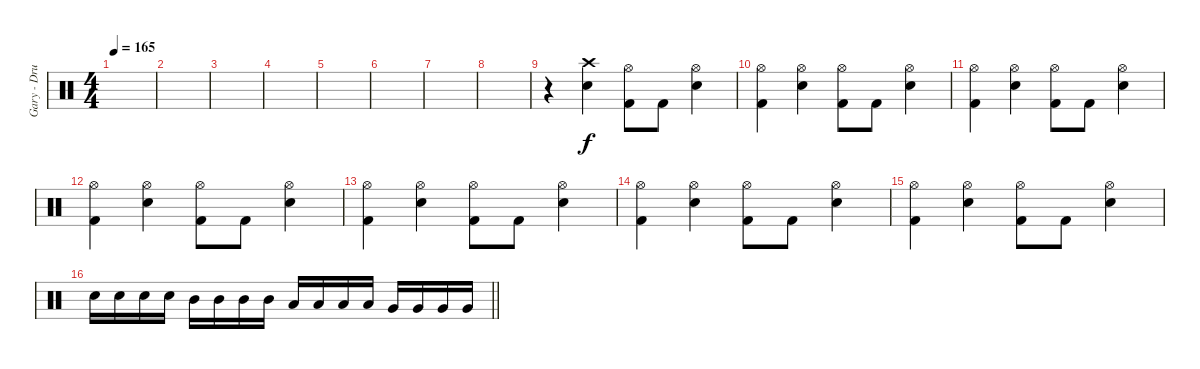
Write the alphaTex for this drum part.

\track ("Gary - Drums" "Gary - Dru") {instrument percussion}
\staff {score}
\articulation defaults
\ts (4 4)
\tempo 165
\clef neutral
\ks c
|
|
|
|
|
|
|
|
r.4 ("Crash high (hit)" "Snare (hit) 2").4 ("Hi-Hat (open)" "Kick (hit) 2").8 "Kick (hit) 2".8 ("Hi-Hat (open)" "Snare (hit) 2").4 |
("Hi-Hat (open)" "Kick (hit) 2").4 ("Hi-Hat (open)" "Snare (hit) 2").4 ("Hi-Hat (open)" "Kick (hit) 2").8 "Kick (hit) 2".8 ("Hi-Hat (open)" "Snare (hit) 2").4 |
("Hi-Hat (open)" "Kick (hit) 2").4 ("Hi-Hat (open)" "Snare (hit) 2").4 ("Hi-Hat (open)" "Kick (hit) 2").8 "Kick (hit) 2".8 ("Hi-Hat (open)" "Snare (hit) 2").4 |
("Hi-Hat (open)" "Kick (hit) 2").4 ("Hi-Hat (open)" "Snare (hit) 2").4 ("Hi-Hat (open)" "Kick (hit) 2").8 "Kick (hit) 2".8 ("Hi-Hat (open)" "Snare (hit) 2").4 |
("Hi-Hat (open)" "Kick (hit) 2").4 ("Hi-Hat (open)" "Snare (hit) 2").4 ("Hi-Hat (open)" "Kick (hit) 2").8 "Kick (hit) 2".8 ("Hi-Hat (open)" "Snare (hit) 2").4 |
("Hi-Hat (open)" "Kick (hit) 2").4 ("Hi-Hat (open)" "Snare (hit) 2").4 ("Hi-Hat (open)" "Kick (hit) 2").8 "Kick (hit) 2".8 ("Hi-Hat (open)" "Snare (hit) 2").4 |
("Hi-Hat (open)" "Kick (hit) 2").4 ("Hi-Hat (open)" "Snare (hit) 2").4 ("Hi-Hat (open)" "Kick (hit) 2").8 "Kick (hit) 2".8 ("Hi-Hat (open)" "Snare (hit) 2").4 |
\barLineRight lightlight "Snare (hit) 2".16 "Snare (hit) 2".16 "Snare (hit) 2".16 "Snare (hit) 2".16 "Mid Tom (hit)".16 "Mid Tom (hit)".16 "Mid Tom (hit)".16 "Mid Tom (hit)".16 "Low Tom (hit)".16 "Low Tom (hit)".16 "Low Tom (hit)".16 "Low Tom (hit)".16 "Very Low Tom (hit)".16 "Very Low Tom (hit)".16 "Very Low Tom (hit)".16 "Very Low Tom (hit)".16
